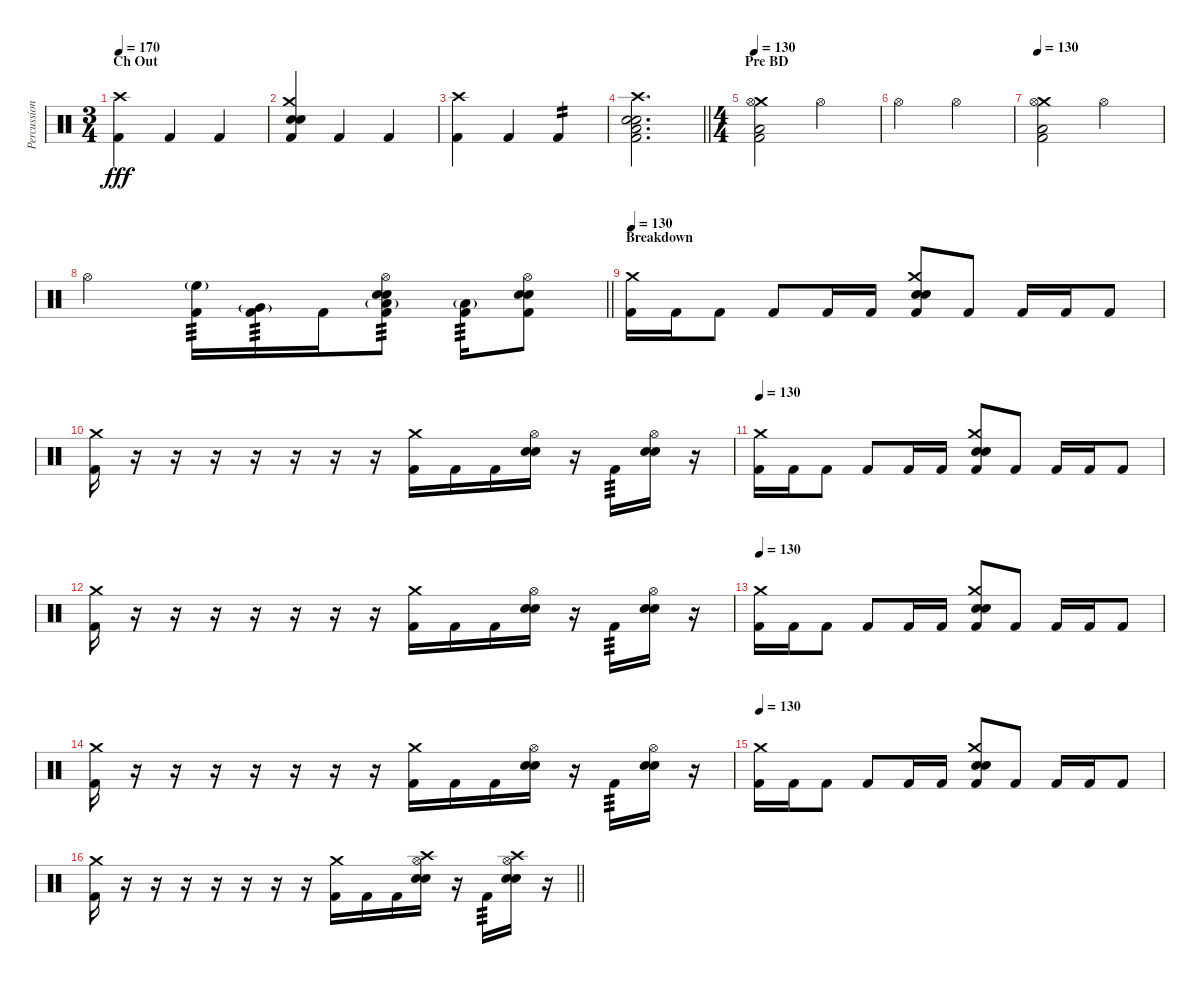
\track ("Percussion" "Percussion") {instrument percussion}
\staff {score}
\articulation defaults
\ts (3 4)
\section ("" "Ch Out")
\tempo 170
\clef neutral
\ks c
("Crash high (hit)" "Kick (hit) 2").4{dy fff} "Kick (hit) 2".4 "Kick (hit) 2".4 |
("Crash medium (hit)" "Electric Snare (hit)" "Snare (hit) 2" "Kick (hit) 2").4 "Kick (hit) 2".4 "Kick (hit) 2".4 |
("Crash high (hit)" "Kick (hit) 2").4 "Kick (hit) 2".4 "Kick (hit) 2".4{tp 2} |
\barLineRight lightlight
("Crash high (hit)" "Electric Snare (hit)" "Snare (hit) 2" "Low Floor Tom (hit)" "Kick (hit) 2").2{d} |
\ts (4 4)
\section ("" "Pre BD")
\tempo 120
\tempo 130
("Crash medium (hit)" "Hi-Hat (open)" "Low Floor Tom (hit)" "Kick (hit) 2").2 "Hi-Hat (open)".2 |
"Hi-Hat (open)".2 "Hi-Hat (open)".2 |
\tempo 130
("Crash medium (hit)" "Hi-Hat (open)" "Low Floor Tom (hit)" "Kick (hit) 2").2 "Hi-Hat (open)".2 |
\barLineRight lightlight "Hi-Hat (open)".2
("High Floor Tom (hit)"{g} "Kick (hit) 2").16{tp 3} ("Very Low Tom (hit)"{g} "Kick (hit) 2").16{tp 3} "Kick (hit) 2".16 ("Hi-Hat (open)" "Low Tom (hit)"{g} "Snare (hit) 2" "Electric Snare (hit)" "Kick (hit) 2").8{tp 3} ("Low Floor Tom (hit)"{g} "Kick (hit) 2").16{tp 3} ("Hi-Hat (open)" "Snare (hit) 2" "Electric Snare (hit)" "Kick (hit) 2").8 |
\section ("" "Breakdown")
\tempo 130
("Crash medium (hit)" "Kick (hit) 2").16 "Kick (hit) 2".16 "Kick (hit) 2".8 "Kick (hit) 2".8 "Kick (hit) 2".16 "Kick (hit) 2".16 ("Crash medium (hit)" "Electric Snare (hit)" "Snare (hit) 2" "Kick (hit) 2").8 "Kick (hit) 2".8 "Kick (hit) 2".16 "Kick (hit) 2".16 "Kick (hit) 2".8 |
("Crash medium (hit)" "Kick (hit) 2").16 r.16 r.16 r.16 r.16 r.16 r.16 r.16 ("Crash medium (hit)" "Kick (hit) 2").16 "Kick (hit) 2".16 "Kick (hit) 2".16 ("Hi-Hat (open)" "Snare (hit) 2" "Electric Snare (hit)").16 r.16 "Kick (hit) 2".16{tp 3} ("Hi-Hat (open)" "Snare (hit) 2" "Electric Snare (hit)").16 r.16 |
\tempo 130
("Crash medium (hit)" "Kick (hit) 2").16 "Kick (hit) 2".16 "Kick (hit) 2".8 "Kick (hit) 2".8 "Kick (hit) 2".16 "Kick (hit) 2".16 ("Crash medium (hit)" "Electric Snare (hit)" "Snare (hit) 2" "Kick (hit) 2").8 "Kick (hit) 2".8 "Kick (hit) 2".16 "Kick (hit) 2".16 "Kick (hit) 2".8 |
("Crash medium (hit)" "Kick (hit) 2").16 r.16 r.16 r.16 r.16 r.16 r.16 r.16 ("Crash medium (hit)" "Kick (hit) 2").16 "Kick (hit) 2".16 "Kick (hit) 2".16 ("Hi-Hat (open)" "Snare (hit) 2" "Electric Snare (hit)").16 r.16 "Kick (hit) 2".16{tp 3} ("Hi-Hat (open)" "Snare (hit) 2" "Electric Snare (hit)").16 r.16 |
\tempo 130
("Crash medium (hit)" "Kick (hit) 2").16 "Kick (hit) 2".16 "Kick (hit) 2".8 "Kick (hit) 2".8 "Kick (hit) 2".16 "Kick (hit) 2".16 ("Crash medium (hit)" "Electric Snare (hit)" "Snare (hit) 2" "Kick (hit) 2").8 "Kick (hit) 2".8 "Kick (hit) 2".16 "Kick (hit) 2".16 "Kick (hit) 2".8 |
("Crash medium (hit)" "Kick (hit) 2").16 r.16 r.16 r.16 r.16 r.16 r.16 r.16 ("Crash medium (hit)" "Kick (hit) 2").16 "Kick (hit) 2".16 "Kick (hit) 2".16 ("Hi-Hat (open)" "Snare (hit) 2" "Electric Snare (hit)").16 r.16 "Kick (hit) 2".16{tp 3} ("Hi-Hat (open)" "Snare (hit) 2" "Electric Snare (hit)").16 r.16 |
\tempo 130
("Crash medium (hit)" "Kick (hit) 2").16 "Kick (hit) 2".16 "Kick (hit) 2".8 "Kick (hit) 2".8 "Kick (hit) 2".16 "Kick (hit) 2".16 ("Crash medium (hit)" "Electric Snare (hit)" "Snare (hit) 2" "Kick (hit) 2").8 "Kick (hit) 2".8 "Kick (hit) 2".16 "Kick (hit) 2".16 "Kick (hit) 2".8 |
\barLineRight lightlight
("Crash medium (hit)" "Kick (hit) 2").16 r.16 r.16 r.16 r.16 r.16 r.16 r.16 ("Crash medium (hit)" "Kick (hit) 2").16 "Kick (hit) 2".16 "Kick (hit) 2".16 ("Crash high (hit)" "Hi-Hat (open)" "Snare (hit) 2" "Electric Snare (hit)").16 r.16 "Kick (hit) 2".16{tp 3} ("Crash high (hit)" "Hi-Hat (open)" "Snare (hit) 2" "Electric Snare (hit)").16 r.16
